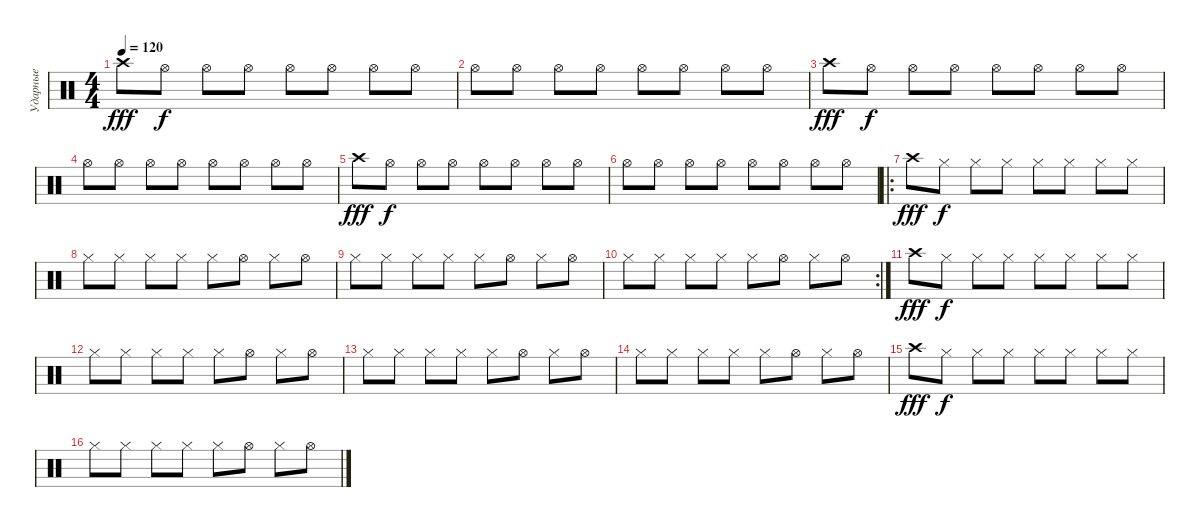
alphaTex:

\track ("Ударные" "Ударные") {instrument percussion}
\staff {score}
\articulation defaults
\ts (4 4)
\tempo 120
\clef neutral
\ks c "Crash high (hit)".8{dy fff volume 16} "Hi-Hat (open)".8{dy f} "Hi-Hat (open)".8 "Hi-Hat (open)".8 "Hi-Hat (open)".8 "Hi-Hat (open)".8 "Hi-Hat (open)".8 "Hi-Hat (open)".8
|
"Hi-Hat (open)".8 "Hi-Hat (open)".8 "Hi-Hat (open)".8 "Hi-Hat (open)".8 "Hi-Hat (open)".8 "Hi-Hat (open)".8 "Hi-Hat (open)".8 "Hi-Hat (open)".8 |
"Crash high (hit)".8{dy fff volume 16} "Hi-Hat (open)".8{dy f} "Hi-Hat (open)".8 "Hi-Hat (open)".8 "Hi-Hat (open)".8 "Hi-Hat (open)".8 "Hi-Hat (open)".8 "Hi-Hat (open)".8 |
"Hi-Hat (open)".8 "Hi-Hat (open)".8 "Hi-Hat (open)".8 "Hi-Hat (open)".8 "Hi-Hat (open)".8 "Hi-Hat (open)".8 "Hi-Hat (open)".8 "Hi-Hat (open)".8 |
"Crash high (hit)".8{dy fff volume 16} "Hi-Hat (open)".8{dy f} "Hi-Hat (open)".8 "Hi-Hat (open)".8 "Hi-Hat (open)".8 "Hi-Hat (open)".8 "Hi-Hat (open)".8 "Hi-Hat (open)".8 |
"Hi-Hat (open)".8 "Hi-Hat (open)".8 "Hi-Hat (open)".8 "Hi-Hat (open)".8 "Hi-Hat (open)".8 "Hi-Hat (open)".8 "Hi-Hat (open)".8 "Hi-Hat (open)".8 |
\ro "Crash high (hit)".8{dy fff volume 16} "Hi-Hat (closed)".8{dy f} "Hi-Hat (closed)".8 "Hi-Hat (closed)".8 "Hi-Hat (closed)".8 "Hi-Hat (closed)".8 "Hi-Hat (closed)".8 "Hi-Hat (closed)".8
|
"Hi-Hat (closed)".8 "Hi-Hat (closed)".8 "Hi-Hat (closed)".8 "Hi-Hat (closed)".8 "Hi-Hat (closed)".8 "Hi-Hat (open)".8 "Hi-Hat (closed)".8 "Hi-Hat (open)".8 |
"Hi-Hat (closed)".8 "Hi-Hat (closed)".8 "Hi-Hat (closed)".8 "Hi-Hat (closed)".8 "Hi-Hat (closed)".8 "Hi-Hat (open)".8 "Hi-Hat (closed)".8 "Hi-Hat (open)".8 |
\rc 2 "Hi-Hat (closed)".8 "Hi-Hat (closed)".8 "Hi-Hat (closed)".8 "Hi-Hat (closed)".8 "Hi-Hat (closed)".8 "Hi-Hat (open)".8 "Hi-Hat (closed)".8 "Hi-Hat (open)".8
|
"Crash high (hit)".8{dy fff volume 16} "Hi-Hat (closed)".8{dy f} "Hi-Hat (closed)".8 "Hi-Hat (closed)".8 "Hi-Hat (closed)".8 "Hi-Hat (closed)".8 "Hi-Hat (closed)".8 "Hi-Hat (closed)".8 |
"Hi-Hat (closed)".8 "Hi-Hat (closed)".8 "Hi-Hat (closed)".8 "Hi-Hat (closed)".8 "Hi-Hat (closed)".8 "Hi-Hat (open)".8 "Hi-Hat (closed)".8 "Hi-Hat (open)".8 |
"Hi-Hat (closed)".8 "Hi-Hat (closed)".8 "Hi-Hat (closed)".8 "Hi-Hat (closed)".8 "Hi-Hat (closed)".8 "Hi-Hat (open)".8 "Hi-Hat (closed)".8 "Hi-Hat (open)".8 |
"Hi-Hat (closed)".8 "Hi-Hat (closed)".8 "Hi-Hat (closed)".8 "Hi-Hat (closed)".8 "Hi-Hat (closed)".8 "Hi-Hat (open)".8 "Hi-Hat (closed)".8 "Hi-Hat (open)".8 |
"Crash high (hit)".8{dy fff volume 16} "Hi-Hat (closed)".8{dy f} "Hi-Hat (closed)".8 "Hi-Hat (closed)".8 "Hi-Hat (closed)".8 "Hi-Hat (closed)".8 "Hi-Hat (closed)".8 "Hi-Hat (closed)".8 |
"Hi-Hat (closed)".8 "Hi-Hat (closed)".8 "Hi-Hat (closed)".8 "Hi-Hat (closed)".8 "Hi-Hat (closed)".8 "Hi-Hat (open)".8 "Hi-Hat (closed)".8 "Hi-Hat (open)".8
